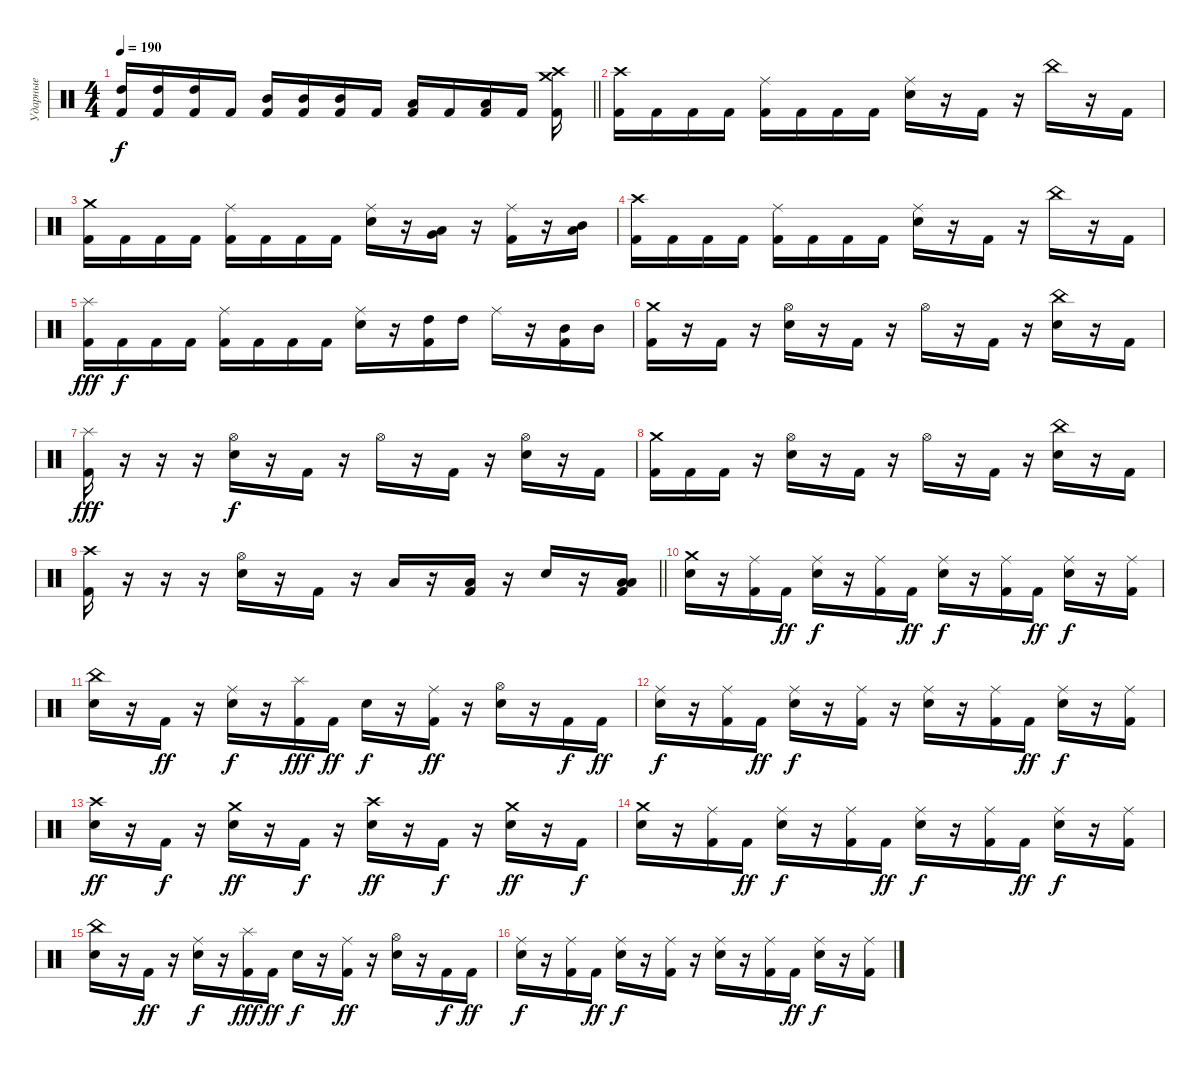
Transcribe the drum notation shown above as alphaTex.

\track ("Ударные" "Ударные") {instrument percussion}
\staff {score}
\articulation defaults
\ts (4 4)
\tempo 190
\clef neutral
\barLineRight lightlight
\ks c
("High Tom (hit)" "Kick (hit) 2").16{dy f} ("High Tom (hit)" "Kick (hit) 2").16 ("High Tom (hit)" "Kick (hit) 2").16 "Kick (hit) 2".16 ("Mid Tom (hit)" "Kick (hit) 2").16 ("Mid Tom (hit)" "Kick (hit) 2").16 ("Mid Tom (hit)" "Kick (hit) 2").16 "Kick (hit) 2".16 ("Low Tom (hit)" "Kick (hit) 2").16 "Kick (hit) 2".16 ("Low Tom (hit)" "Kick (hit) 2").16 "Kick (hit) 2".16 ("Crash medium (hit)" "Crash high (hit)" "Kick (hit) 2").16 |
("Crash high (hit)" "Kick (hit) 2").16 "Kick (hit) 2".16 "Kick (hit) 2".16 "Kick (hit) 2".16 ("Ride (middle)" "Kick (hit) 2").16 "Kick (hit) 2".16 "Kick (hit) 2".16 "Kick (hit) 2".16 ("Ride (middle)" "Snare (hit) 2").16 r.16 "Kick (hit) 2".16 r.16 "China (hit)".16 r.16 "Kick (hit) 2".16 |
("Crash medium (hit)" "Kick (hit) 2").16 "Kick (hit) 2".16 "Kick (hit) 2".16 "Kick (hit) 2".16 ("Ride (middle)" "Kick (hit) 2").16 "Kick (hit) 2".16 "Kick (hit) 2".16 "Kick (hit) 2".16 ("Ride (middle)" "Snare (hit) 2").16 r.16 ("Low Floor Tom (hit)" "Very Low Tom (hit)").16 r.16 ("Ride (middle)" "Kick (hit) 2").16 r.16 ("Mid Tom (hit)" "Low Tom (hit)").16 |
("Crash high (hit)" "Kick (hit) 2").16 "Kick (hit) 2".16 "Kick (hit) 2".16 "Kick (hit) 2".16 ("Ride (middle)" "Kick (hit) 2").16 "Kick (hit) 2".16 "Kick (hit) 2".16 "Kick (hit) 2".16 ("Ride (middle)" "Snare (hit) 2").16 r.16 "Kick (hit) 2".16 r.16 "China (hit)".16 r.16 "Kick (hit) 2".16 |
("Splash (hit)" "Kick (hit) 2").16{dy fff} "Kick (hit) 2".16{dy f} "Kick (hit) 2".16 "Kick (hit) 2".16 ("Ride (middle)" "Kick (hit) 2").16 "Kick (hit) 2".16 "Kick (hit) 2".16 "Kick (hit) 2".16 ("Ride (middle)" "Snare (hit) 2").16 r.16 ("High Tom (hit)" "Kick (hit) 2").16 "High Tom (hit)".16 "Ride (middle)".16 r.16 ("Mid Tom (hit)" "Kick (hit) 2").16 "Mid Tom (hit)".16 |
("Crash medium (hit)" "Kick (hit) 2").16 r.16 "Kick (hit) 2".16 r.16 ("Hi-Hat (open)" "Snare (hit) 2").16 r.16 "Kick (hit) 2".16 r.16 "Hi-Hat (open)".16 r.16 "Kick (hit) 2".16 r.16 ("China (hit)" "Snare (hit) 2").16 r.16 "Kick (hit) 2".16 |
("Splash (hit)" "Kick (hit) 2").16{dy fff} r.16 r.16 r.16 ("Hi-Hat (open)" "Snare (hit) 2").16{dy f} r.16 "Kick (hit) 2".16 r.16 "Hi-Hat (open)".16 r.16 "Kick (hit) 2".16 r.16 ("Hi-Hat (open)" "Snare (hit) 2").16 r.16 "Kick (hit) 2".16 |
("Crash medium (hit)" "Kick (hit) 2").16 "Kick (hit) 2".16 "Kick (hit) 2".16 r.16 ("Hi-Hat (open)" "Snare (hit) 2").16 r.16 "Kick (hit) 2".16 r.16 "Hi-Hat (open)".16 r.16 "Kick (hit) 2".16 r.16 ("China (hit)" "Snare (hit) 2").16 r.16 "Kick (hit) 2".16 |
\barLineRight lightlight
("Crash high (hit)" "Kick (hit) 2").16 r.16 r.16 r.16 ("Hi-Hat (open)" "Snare (hit) 2").16 r.16 "Kick (hit) 2".16 r.16 "Low Tom (hit)".16 r.16 ("Low Tom (hit)" "Kick (hit) 2").16 r.16 "Snare (hit) 2".16 r.16 ("Low Tom (hit)" "Low Floor Tom (hit)" "Kick (hit) 2").16 |
("Crash medium (hit)" "Snare (hit) 2").16 r.16 ("Ride (middle)" "Kick (hit) 2").16 "Kick (hit) 2".16{dy ff} ("Ride (middle)" "Snare (hit) 2").16{dy f} r.16 ("Ride (middle)" "Kick (hit) 2").16 "Kick (hit) 2".16{dy ff} ("Ride (middle)" "Snare (hit) 2").16{dy f} r.16 ("Ride (middle)" "Kick (hit) 2").16 "Kick (hit) 2".16{dy ff} ("Ride (middle)" "Snare (hit) 2").16{dy f} r.16 ("Ride (middle)" "Kick (hit) 2").16 |
("China (hit)" "Snare (hit) 2").16 r.16 "Kick (hit) 2".16{dy ff} r.16 ("Ride (middle)" "Snare (hit) 2").16{dy f} r.16 ("Splash (hit)" "Kick (hit) 2").16{dy fff} "Kick (hit) 2".16{dy ff} "Snare (hit) 2".16{dy f} r.16 ("Ride (middle)" "Kick (hit) 2").16{dy ff} r.16 ("Hi-Hat (open)" "Snare (hit) 2").16 r.16 "Kick (hit) 2".16{dy f} "Kick (hit) 2".16{dy ff} |
("Ride (middle)" "Snare (hit) 2").16{dy f} r.16 ("Ride (middle)" "Kick (hit) 2").16 "Kick (hit) 2".16{dy ff} ("Ride (middle)" "Snare (hit) 2").16{dy f} r.16 ("Ride (middle)" "Kick (hit) 2").16 r.16 ("Ride (middle)" "Snare (hit) 2").16 r.16 ("Ride (middle)" "Kick (hit) 2").16 "Kick (hit) 2".16{dy ff} ("Ride (middle)" "Snare (hit) 2").16{dy f} r.16 ("Ride (middle)" "Kick (hit) 2").16 |
("Crash high (hit)" "Snare (hit) 2").16{dy ff} r.16 "Kick (hit) 2".16{dy f} r.16 ("Crash medium (hit)" "Snare (hit) 2").16{dy ff} r.16 "Kick (hit) 2".16{dy f} r.16 ("Crash high (hit)" "Snare (hit) 2").16{dy ff} r.16 "Kick (hit) 2".16{dy f} r.16 ("Crash medium (hit)" "Snare (hit) 2").16{dy ff} r.16 "Kick (hit) 2".16{dy f} |
("Crash medium (hit)" "Snare (hit) 2").16 r.16 ("Ride (middle)" "Kick (hit) 2").16 "Kick (hit) 2".16{dy ff} ("Ride (middle)" "Snare (hit) 2").16{dy f} r.16 ("Ride (middle)" "Kick (hit) 2").16 "Kick (hit) 2".16{dy ff} ("Ride (middle)" "Snare (hit) 2").16{dy f} r.16 ("Ride (middle)" "Kick (hit) 2").16 "Kick (hit) 2".16{dy ff} ("Ride (middle)" "Snare (hit) 2").16{dy f} r.16 ("Ride (middle)" "Kick (hit) 2").16 |
("China (hit)" "Snare (hit) 2").16 r.16 "Kick (hit) 2".16{dy ff} r.16 ("Ride (middle)" "Snare (hit) 2").16{dy f} r.16 ("Splash (hit)" "Kick (hit) 2").16{dy fff} "Kick (hit) 2".16{dy ff} "Snare (hit) 2".16{dy f} r.16 ("Ride (middle)" "Kick (hit) 2").16{dy ff} r.16 ("Hi-Hat (open)" "Snare (hit) 2").16 r.16 "Kick (hit) 2".16{dy f} "Kick (hit) 2".16{dy ff} |
("Ride (middle)" "Snare (hit) 2").16{dy f} r.16 ("Ride (middle)" "Kick (hit) 2").16 "Kick (hit) 2".16{dy ff} ("Ride (middle)" "Snare (hit) 2").16{dy f} r.16 ("Ride (middle)" "Kick (hit) 2").16 r.16 ("Ride (middle)" "Snare (hit) 2").16 r.16 ("Ride (middle)" "Kick (hit) 2").16 "Kick (hit) 2".16{dy ff} ("Ride (middle)" "Snare (hit) 2").16{dy f} r.16 ("Ride (middle)" "Kick (hit) 2").16
